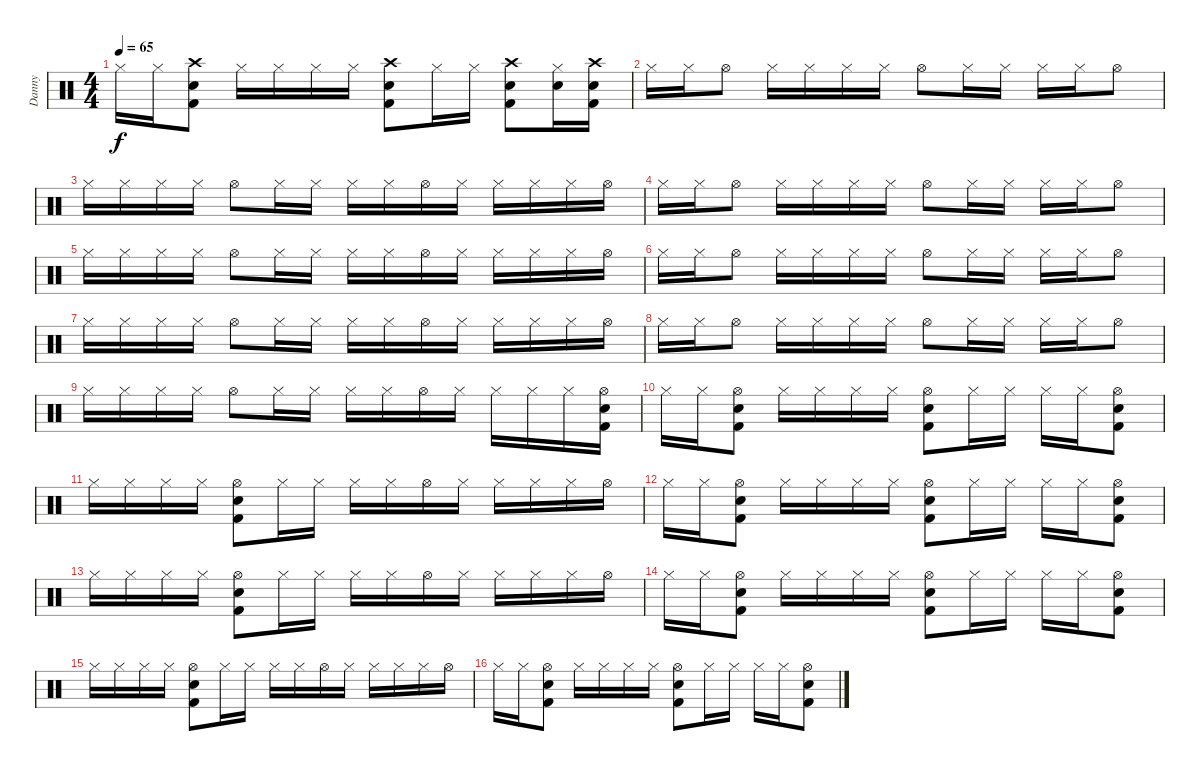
\track ("Danny" "Danny") {instrument percussion}
\staff {score}
\articulation defaults
\ts (4 4)
\tempo 65
\clef neutral
\ks c "Hi-Hat (closed)".16{dy f} "Hi-Hat (closed)".16
("Crash high (hit)" "Snare (hit) 2" "Kick (hit) 2").8 "Hi-Hat (closed)".16 "Hi-Hat (closed)".16 "Hi-Hat (closed)".16 "Hi-Hat (closed)".16 ("Crash high (hit)" "Snare (hit) 2" "Kick (hit) 2").8 "Hi-Hat (closed)".16 "Hi-Hat (closed)".16 ("Crash high (hit)" "Snare (hit) 2" "Kick (hit) 2").8 ("Hi-Hat (closed)" "Snare (hit) 2").16 ("Crash high (hit)" "Snare (hit) 2" "Kick (hit) 2").16 |
"Hi-Hat (closed)".16 "Hi-Hat (closed)".16 "Hi-Hat (open)".8 "Hi-Hat (closed)".16 "Hi-Hat (closed)".16 "Hi-Hat (closed)".16 "Hi-Hat (closed)".16 "Hi-Hat (open)".8 "Hi-Hat (closed)".16 "Hi-Hat (closed)".16 "Hi-Hat (closed)".16 "Hi-Hat (closed)".16 "Hi-Hat (open)".8 |
"Hi-Hat (closed)".16 "Hi-Hat (closed)".16 "Hi-Hat (closed)".16 "Hi-Hat (closed)".16 "Hi-Hat (open)".8 "Hi-Hat (closed)".16 "Hi-Hat (closed)".16 "Hi-Hat (closed)".16 "Hi-Hat (closed)".16 "Hi-Hat (open)".16 "Hi-Hat (closed)".16 "Hi-Hat (closed)".16 "Hi-Hat (closed)".16 "Hi-Hat (closed)".16 "Hi-Hat (open)".16 |
"Hi-Hat (closed)".16 "Hi-Hat (closed)".16 "Hi-Hat (open)".8 "Hi-Hat (closed)".16 "Hi-Hat (closed)".16 "Hi-Hat (closed)".16 "Hi-Hat (closed)".16 "Hi-Hat (open)".8 "Hi-Hat (closed)".16 "Hi-Hat (closed)".16 "Hi-Hat (closed)".16 "Hi-Hat (closed)".16 "Hi-Hat (open)".8 |
"Hi-Hat (closed)".16 "Hi-Hat (closed)".16 "Hi-Hat (closed)".16 "Hi-Hat (closed)".16 "Hi-Hat (open)".8 "Hi-Hat (closed)".16 "Hi-Hat (closed)".16 "Hi-Hat (closed)".16 "Hi-Hat (closed)".16 "Hi-Hat (open)".16 "Hi-Hat (closed)".16 "Hi-Hat (closed)".16 "Hi-Hat (closed)".16 "Hi-Hat (closed)".16 "Hi-Hat (open)".16 |
"Hi-Hat (closed)".16 "Hi-Hat (closed)".16 "Hi-Hat (open)".8 "Hi-Hat (closed)".16 "Hi-Hat (closed)".16 "Hi-Hat (closed)".16 "Hi-Hat (closed)".16 "Hi-Hat (open)".8 "Hi-Hat (closed)".16 "Hi-Hat (closed)".16 "Hi-Hat (closed)".16 "Hi-Hat (closed)".16 "Hi-Hat (open)".8 |
"Hi-Hat (closed)".16 "Hi-Hat (closed)".16 "Hi-Hat (closed)".16 "Hi-Hat (closed)".16 "Hi-Hat (open)".8 "Hi-Hat (closed)".16 "Hi-Hat (closed)".16 "Hi-Hat (closed)".16 "Hi-Hat (closed)".16 "Hi-Hat (open)".16 "Hi-Hat (closed)".16 "Hi-Hat (closed)".16 "Hi-Hat (closed)".16 "Hi-Hat (closed)".16 "Hi-Hat (open)".16 |
"Hi-Hat (closed)".16 "Hi-Hat (closed)".16 "Hi-Hat (open)".8 "Hi-Hat (closed)".16 "Hi-Hat (closed)".16 "Hi-Hat (closed)".16 "Hi-Hat (closed)".16 "Hi-Hat (open)".8 "Hi-Hat (closed)".16 "Hi-Hat (closed)".16 "Hi-Hat (closed)".16 "Hi-Hat (closed)".16 "Hi-Hat (open)".8 |
"Hi-Hat (closed)".16 "Hi-Hat (closed)".16 "Hi-Hat (closed)".16 "Hi-Hat (closed)".16 "Hi-Hat (open)".8 "Hi-Hat (closed)".16 "Hi-Hat (closed)".16 "Hi-Hat (closed)".16 "Hi-Hat (closed)".16 "Hi-Hat (open)".16 "Hi-Hat (closed)".16 "Hi-Hat (closed)".16 "Hi-Hat (closed)".16 "Hi-Hat (closed)".16 ("Hi-Hat (open)" "Snare (hit) 2" "Kick (hit) 2").16 |
"Hi-Hat (closed)".16 "Hi-Hat (closed)".16 ("Hi-Hat (open)" "Snare (hit) 2" "Kick (hit) 2").8 "Hi-Hat (closed)".16 "Hi-Hat (closed)".16 "Hi-Hat (closed)".16 "Hi-Hat (closed)".16 ("Hi-Hat (open)" "Snare (hit) 2" "Kick (hit) 2").8 "Hi-Hat (closed)".16 "Hi-Hat (closed)".16 "Hi-Hat (closed)".16 "Hi-Hat (closed)".16 ("Hi-Hat (open)" "Snare (hit) 2" "Kick (hit) 2").8 |
"Hi-Hat (closed)".16 "Hi-Hat (closed)".16 "Hi-Hat (closed)".16 "Hi-Hat (closed)".16 ("Hi-Hat (open)" "Snare (hit) 2" "Kick (hit) 2").8 "Hi-Hat (closed)".16 "Hi-Hat (closed)".16 "Hi-Hat (closed)".16 "Hi-Hat (closed)".16 "Hi-Hat (open)".16 "Hi-Hat (closed)".16 "Hi-Hat (closed)".16 "Hi-Hat (closed)".16 "Hi-Hat (closed)".16 "Hi-Hat (open)".16 |
"Hi-Hat (closed)".16 "Hi-Hat (closed)".16 ("Hi-Hat (open)" "Snare (hit) 2" "Kick (hit) 2").8 "Hi-Hat (closed)".16 "Hi-Hat (closed)".16 "Hi-Hat (closed)".16 "Hi-Hat (closed)".16 ("Hi-Hat (open)" "Snare (hit) 2" "Kick (hit) 2").8 "Hi-Hat (closed)".16 "Hi-Hat (closed)".16 "Hi-Hat (closed)".16 "Hi-Hat (closed)".16 ("Hi-Hat (open)" "Snare (hit) 2" "Kick (hit) 2").8 |
"Hi-Hat (closed)".16 "Hi-Hat (closed)".16 "Hi-Hat (closed)".16 "Hi-Hat (closed)".16 ("Hi-Hat (open)" "Snare (hit) 2" "Kick (hit) 2").8 "Hi-Hat (closed)".16 "Hi-Hat (closed)".16 "Hi-Hat (closed)".16 "Hi-Hat (closed)".16 "Hi-Hat (open)".16 "Hi-Hat (closed)".16 "Hi-Hat (closed)".16 "Hi-Hat (closed)".16 "Hi-Hat (closed)".16 "Hi-Hat (open)".16 |
"Hi-Hat (closed)".16 "Hi-Hat (closed)".16 ("Hi-Hat (open)" "Snare (hit) 2" "Kick (hit) 2").8 "Hi-Hat (closed)".16 "Hi-Hat (closed)".16 "Hi-Hat (closed)".16 "Hi-Hat (closed)".16 ("Hi-Hat (open)" "Snare (hit) 2" "Kick (hit) 2").8 "Hi-Hat (closed)".16 "Hi-Hat (closed)".16 "Hi-Hat (closed)".16 "Hi-Hat (closed)".16 ("Hi-Hat (open)" "Snare (hit) 2" "Kick (hit) 2").8 |
"Hi-Hat (closed)".16 "Hi-Hat (closed)".16 "Hi-Hat (closed)".16 "Hi-Hat (closed)".16 ("Hi-Hat (open)" "Snare (hit) 2" "Kick (hit) 2").8 "Hi-Hat (closed)".16 "Hi-Hat (closed)".16 "Hi-Hat (closed)".16 "Hi-Hat (closed)".16 "Hi-Hat (open)".16 "Hi-Hat (closed)".16 "Hi-Hat (closed)".16 "Hi-Hat (closed)".16 "Hi-Hat (closed)".16 "Hi-Hat (open)".16 |
"Hi-Hat (closed)".16 "Hi-Hat (closed)".16 ("Hi-Hat (open)" "Snare (hit) 2" "Kick (hit) 2").8 "Hi-Hat (closed)".16 "Hi-Hat (closed)".16 "Hi-Hat (closed)".16 "Hi-Hat (closed)".16 ("Hi-Hat (open)" "Snare (hit) 2" "Kick (hit) 2").8 "Hi-Hat (closed)".16 "Hi-Hat (closed)".16 "Hi-Hat (closed)".16 "Hi-Hat (closed)".16 ("Hi-Hat (open)" "Snare (hit) 2" "Kick (hit) 2").8
